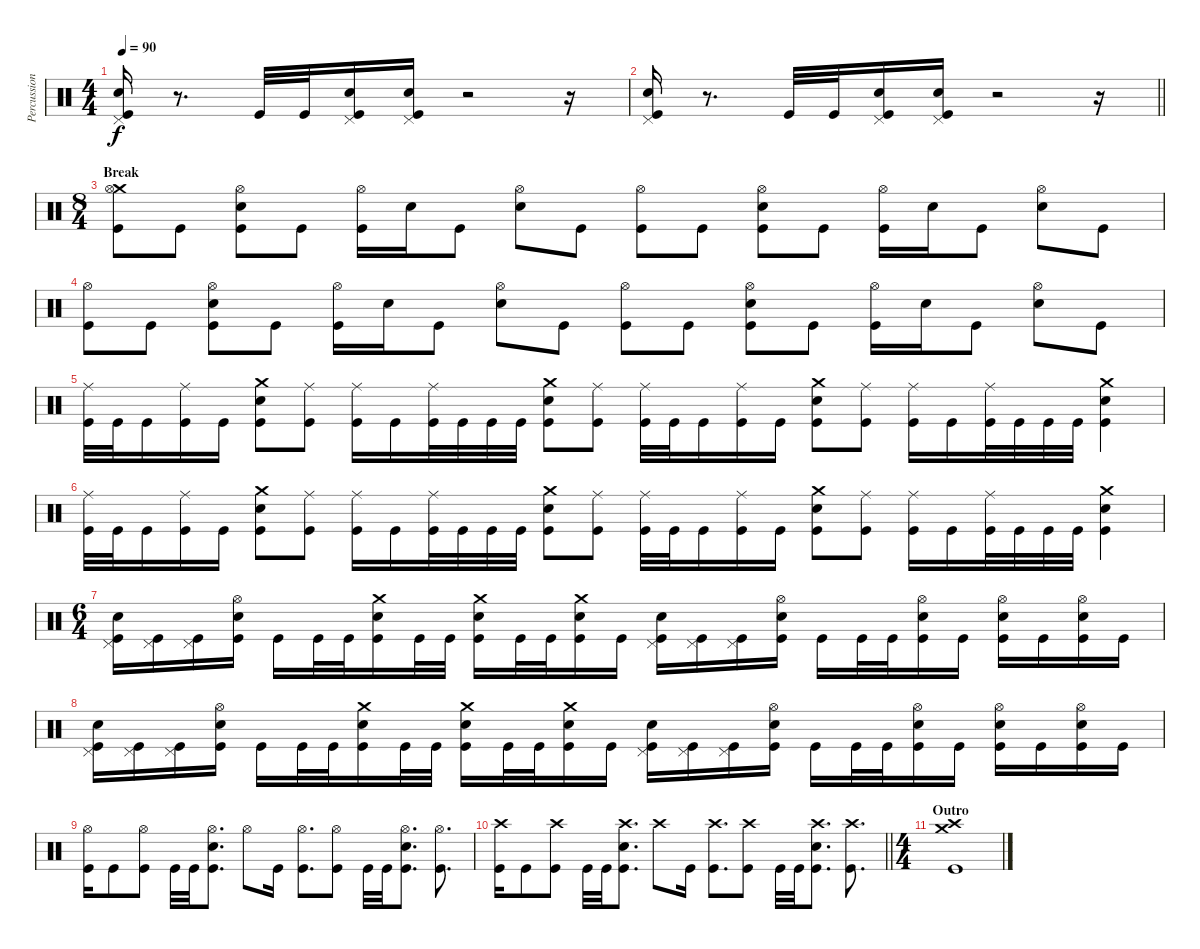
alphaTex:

\track ("Percussion" "Percussion") {instrument percussion}
\staff {score}
\articulation defaults
\ts (4 4)
\tempo 90
\clef neutral
\ks c
("Pedal Hi-Hat (hit)" "Electric Snare (hit)" "Kick (hit)").16{dy f} r.8{d} "Kick (hit)".32 "Kick (hit)".32 ("Pedal Hi-Hat (hit)" "Electric Snare (hit)" "Kick (hit)").16 ("Pedal Hi-Hat (hit)" "Electric Snare (hit)" "Kick (hit)").16 r.2 r.16 |
\barLineRight lightlight
("Pedal Hi-Hat (hit)" "Electric Snare (hit)" "Kick (hit)").16 r.8{d} "Kick (hit)".32 "Kick (hit)".32 ("Pedal Hi-Hat (hit)" "Electric Snare (hit)" "Kick (hit)").16 ("Pedal Hi-Hat (hit)" "Electric Snare (hit)" "Kick (hit)").16 r.2 r.16 |
\ts (8 4)
\section ("" "Break")
("Crash medium (hit)" "Hi-Hat (open)" "Kick (hit)").8 "Kick (hit)".8 ("Hi-Hat (open)" "Electric Snare (hit)" "Kick (hit)").8 "Kick (hit)".8 ("Hi-Hat (open)" "Kick (hit)").16 "Electric Snare (hit)".16 "Kick (hit)".8 ("Hi-Hat (open)" "Electric Snare (hit)").8 "Kick (hit)".8 ("Hi-Hat (open)" "Kick (hit)").8 "Kick (hit)".8 ("Hi-Hat (open)" "Electric Snare (hit)" "Kick (hit)").8 "Kick (hit)".8 ("Hi-Hat (open)" "Kick (hit)").16 "Electric Snare (hit)".16 "Kick (hit)".8 ("Hi-Hat (open)" "Electric Snare (hit)").8 "Kick (hit)".8 |
("Hi-Hat (open)" "Kick (hit)").8 "Kick (hit)".8 ("Hi-Hat (open)" "Electric Snare (hit)" "Kick (hit)").8 "Kick (hit)".8 ("Hi-Hat (open)" "Kick (hit)").16 "Electric Snare (hit)".16 "Kick (hit)".8 ("Hi-Hat (open)" "Electric Snare (hit)").8 "Kick (hit)".8 ("Hi-Hat (open)" "Kick (hit)").8 "Kick (hit)".8 ("Hi-Hat (open)" "Electric Snare (hit)" "Kick (hit)").8 "Kick (hit)".8 ("Hi-Hat (open)" "Kick (hit)").16 "Electric Snare (hit)".16 "Kick (hit)".8 ("Hi-Hat (open)" "Electric Snare (hit)").8 "Kick (hit)".8 |
("Ride (middle)" "Kick (hit)").32 "Kick (hit)".32 "Kick (hit)".16 ("Ride (middle)" "Kick (hit)").16 "Kick (hit)".16 ("Crash medium (hit)" "Electric Snare (hit)" "Kick (hit)").8 ("Ride (middle)" "Kick (hit)").8 ("Ride (middle)" "Kick (hit)").16 "Kick (hit)".16 ("Ride (middle)" "Kick (hit)").32 "Kick (hit)".32 "Kick (hit)".32 "Kick (hit)".32 ("Crash medium (hit)" "Electric Snare (hit)" "Kick (hit)").8 ("Ride (middle)" "Kick (hit)").8 ("Ride (middle)" "Kick (hit)").32 "Kick (hit)".32 "Kick (hit)".16 ("Ride (middle)" "Kick (hit)").16 "Kick (hit)".16 ("Crash medium (hit)" "Electric Snare (hit)" "Kick (hit)").8 ("Ride (middle)" "Kick (hit)").8 ("Ride (middle)" "Kick (hit)").16 "Kick (hit)".16 ("Ride (middle)" "Kick (hit)").32 "Kick (hit)".32 "Kick (hit)".32 "Kick (hit)".32 ("Crash medium (hit)" "Electric Snare (hit)" "Kick (hit)").4 |
("Ride (middle)" "Kick (hit)").32 "Kick (hit)".32 "Kick (hit)".16 ("Ride (middle)" "Kick (hit)").16 "Kick (hit)".16 ("Crash medium (hit)" "Electric Snare (hit)" "Kick (hit)").8 ("Ride (middle)" "Kick (hit)").8 ("Ride (middle)" "Kick (hit)").16 "Kick (hit)".16 ("Ride (middle)" "Kick (hit)").32 "Kick (hit)".32 "Kick (hit)".32 "Kick (hit)".32 ("Crash medium (hit)" "Electric Snare (hit)" "Kick (hit)").8 ("Ride (middle)" "Kick (hit)").8 ("Ride (middle)" "Kick (hit)").32 "Kick (hit)".32 "Kick (hit)".16 ("Ride (middle)" "Kick (hit)").16 "Kick (hit)".16 ("Crash medium (hit)" "Electric Snare (hit)" "Kick (hit)").8 ("Ride (middle)" "Kick (hit)").8 ("Ride (middle)" "Kick (hit)").16 "Kick (hit)".16 ("Ride (middle)" "Kick (hit)").32 "Kick (hit)".32 "Kick (hit)".32 "Kick (hit)".32 ("Crash medium (hit)" "Electric Snare (hit)" "Kick (hit)").4 |
\ts (6 4)
("Pedal Hi-Hat (hit)" "Electric Snare (hit)" "Kick (hit)").16 ("Pedal Hi-Hat (hit)" "Kick (hit)").16 ("Pedal Hi-Hat (hit)" "Kick (hit)").16 ("Hi-Hat (open)" "Electric Snare (hit)" "Kick (hit)").16 "Kick (hit)".16 "Kick (hit)".32 "Kick (hit)".32 ("Crash medium (hit)" "Electric Snare (hit)" "Kick (hit)").16 "Kick (hit)".32 "Kick (hit)".32 ("Crash medium (hit)" "Electric Snare (hit)" "Kick (hit)").16 "Kick (hit)".32 "Kick (hit)".32 ("Crash medium (hit)" "Electric Snare (hit)" "Kick (hit)").16 "Kick (hit)".16 ("Pedal Hi-Hat (hit)" "Electric Snare (hit)" "Kick (hit)").16 ("Pedal Hi-Hat (hit)" "Kick (hit)").16 ("Pedal Hi-Hat (hit)" "Kick (hit)").16 ("Hi-Hat (open)" "Electric Snare (hit)" "Kick (hit)").16 "Kick (hit)".16 "Kick (hit)".32 "Kick (hit)".32 ("Hi-Hat (open)" "Electric Snare (hit)" "Kick (hit)").16 "Kick (hit)".16 ("Hi-Hat (open)" "Electric Snare (hit)" "Kick (hit)").16 "Kick (hit)".16 ("Hi-Hat (open)" "Electric Snare (hit)" "Kick (hit)").16 "Kick (hit)".16 |
("Pedal Hi-Hat (hit)" "Electric Snare (hit)" "Kick (hit)").16 ("Pedal Hi-Hat (hit)" "Kick (hit)").16 ("Pedal Hi-Hat (hit)" "Kick (hit)").16 ("Hi-Hat (open)" "Electric Snare (hit)" "Kick (hit)").16 "Kick (hit)".16 "Kick (hit)".32 "Kick (hit)".32 ("Crash medium (hit)" "Electric Snare (hit)" "Kick (hit)").16 "Kick (hit)".32 "Kick (hit)".32 ("Crash medium (hit)" "Electric Snare (hit)" "Kick (hit)").16 "Kick (hit)".32 "Kick (hit)".32 ("Crash medium (hit)" "Electric Snare (hit)" "Kick (hit)").16 "Kick (hit)".16 ("Pedal Hi-Hat (hit)" "Electric Snare (hit)" "Kick (hit)").16 ("Pedal Hi-Hat (hit)" "Kick (hit)").16 ("Pedal Hi-Hat (hit)" "Kick (hit)").16 ("Hi-Hat (open)" "Electric Snare (hit)" "Kick (hit)").16 "Kick (hit)".16 "Kick (hit)".32 "Kick (hit)".32 ("Hi-Hat (open)" "Electric Snare (hit)" "Kick (hit)").16 "Kick (hit)".16 ("Hi-Hat (open)" "Electric Snare (hit)" "Kick (hit)").16 "Kick (hit)".16 ("Hi-Hat (open)" "Electric Snare (hit)" "Kick (hit)").16 "Kick (hit)".16 |
("Hi-Hat (open)" "Kick (hit)").16 "Kick (hit)".8 ("Hi-Hat (open)" "Kick (hit)").8 "Kick (hit)".32 "Kick (hit)".32 ("Hi-Hat (open)" "Electric Snare (hit)" "Kick (hit)").8{d} "Hi-Hat (open)".8 "Kick (hit)".16 ("Hi-Hat (open)" "Kick (hit)").8{d} ("Hi-Hat (open)" "Kick (hit)").8 "Kick (hit)".32 "Kick (hit)".32 ("Hi-Hat (open)" "Electric Snare (hit)" "Kick (hit)").8{d} ("Hi-Hat (open)" "Kick (hit)").8{d} |
\barLineRight lightlight
("Crash high (hit)" "Kick (hit)").16 "Kick (hit)".8 ("Crash high (hit)" "Kick (hit)").8 "Kick (hit)".32 "Kick (hit)".32 ("Crash high (hit)" "Electric Snare (hit)" "Kick (hit)").8{d} "Crash high (hit)".8 "Kick (hit)".16 ("Crash high (hit)" "Kick (hit)").8{d} ("Crash high (hit)" "Kick (hit)").8 "Kick (hit)".32 "Kick (hit)".32 ("Crash high (hit)" "Electric Snare (hit)" "Kick (hit)").8{d} ("Crash high (hit)" "Kick (hit)").8{d} |
\ts (4 4)
\section ("" "Outro")
("Crash medium (hit)" "Crash high (hit)" "Kick (hit)").1
